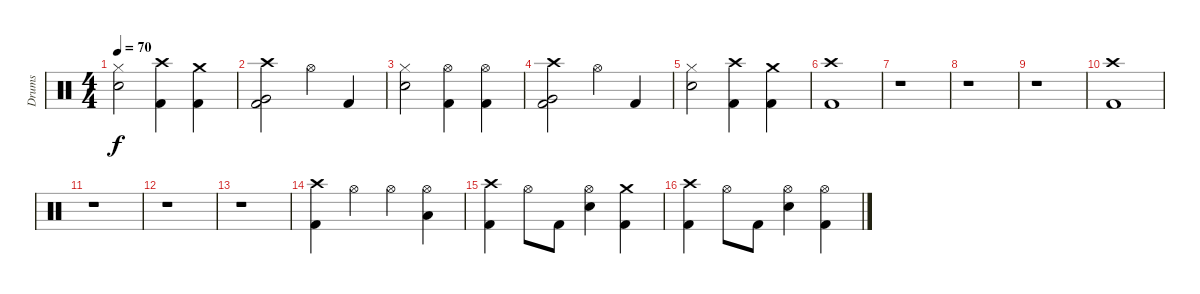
\track ("Drums" "Drums") {instrument percussion}
\staff {score}
\articulation defaults
\ts (4 4)
\tempo 70
\clef neutral
\ks c
("Hi-Hat (closed)" "Electric Snare (hit)").2{dy f} ("Crash high (hit)" "Kick (hit) 2").4 ("Crash medium (hit)" "Kick (hit) 2").4 |
("Crash high (hit)" "Very Low Tom (hit)" "Kick (hit) 2").2 "Hi-Hat (open)".4 "Kick (hit) 2".4 |
("Hi-Hat (closed)" "Electric Snare (hit)").2 ("Hi-Hat (open)" "Kick (hit) 2").4 ("Hi-Hat (open)" "Kick (hit) 2").4 |
("Crash high (hit)" "Very Low Tom (hit)" "Kick (hit) 2").2 "Hi-Hat (open)".4 "Kick (hit) 2".4 |
("Hi-Hat (closed)" "Electric Snare (hit)").2 ("Crash high (hit)" "Kick (hit) 2").4 ("Crash medium (hit)" "Kick (hit) 2").4 |
("Crash high (hit)" "Kick (hit) 2").1 |
r.1 |
r.1 |
r.1 |
("Crash high (hit)" "Kick (hit) 2").1 |
r.1 |
r.1 |
r.1 |
("Crash high (hit)" "Kick (hit) 2").4 "Hi-Hat (open)".4 "Hi-Hat (open)".4 ("Hi-Hat (open)" "Low Floor Tom (hit)").4 |
("Crash high (hit)" "Kick (hit) 2").4 "Hi-Hat (open)".8 "Kick (hit) 2".8 ("Hi-Hat (open)" "Electric Snare (hit)").4 ("Crash medium (hit)" "Kick (hit) 2").4 |
("Crash high (hit)" "Kick (hit) 2").4 "Hi-Hat (open)".8 "Kick (hit) 2".8 ("Hi-Hat (open)" "Electric Snare (hit)").4 ("Hi-Hat (open)" "Kick (hit) 2").4
